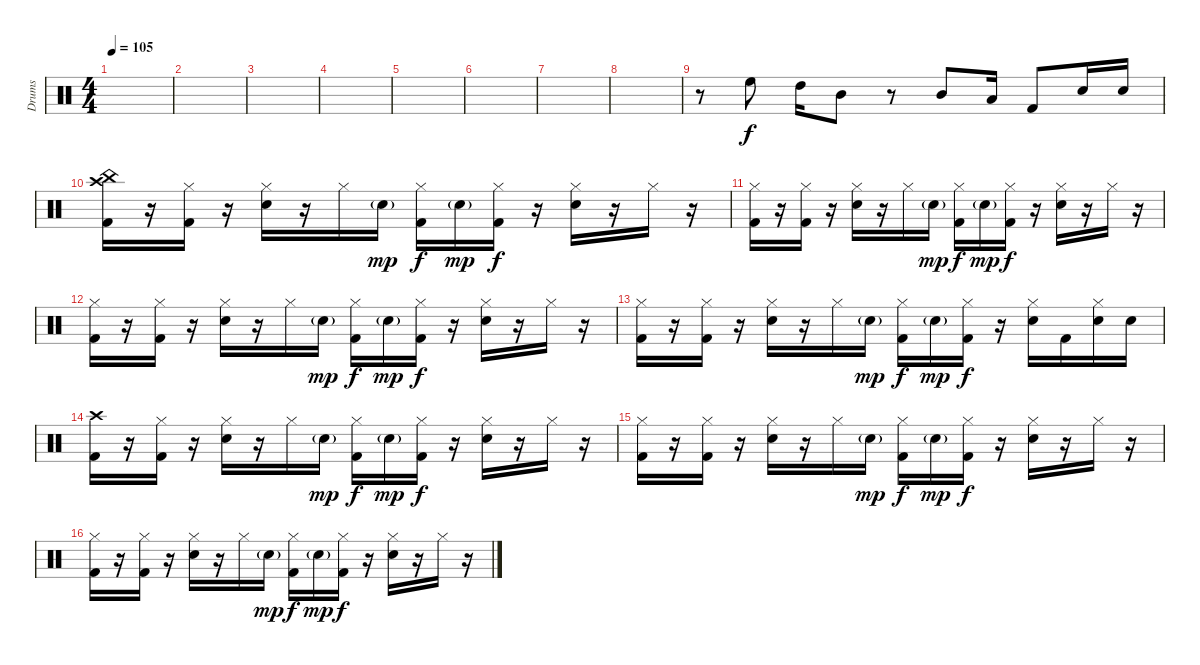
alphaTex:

\track ("Drums" "Drums") {instrument percussion}
\staff {score}
\articulation defaults
\ts (4 4)
\tempo 105
\clef neutral
\ks c
|
|
|
|
|
|
|
|
r.8 "High Floor Tom (hit)".8 "High Tom (hit)".16 "Mid Tom (hit)".8 r.8 "Mid Tom (hit)".8 "Low Tom (hit)".16 "Kick (hit) 2".8 "Snare (hit) 2".16 "Snare (hit) 2".16 |
("Kick (hit) 2" "China (hit)" "Crash high (hit)").16 r.16 ("Kick (hit) 2" "Hi-Hat (closed)").16 r.16 ("Snare (hit) 2" "Hi-Hat (closed)").16 r.16 "Hi-Hat (closed)".16 "Snare (hit) 2"{g}.16{dy mp} ("Kick (hit) 2" "Hi-Hat (closed)").16{dy f} "Snare (hit) 2"{g}.16{dy mp} ("Kick (hit) 2" "Hi-Hat (closed)").16{dy f} r.16 ("Snare (hit) 2" "Hi-Hat (closed)").16 r.16 "Hi-Hat (closed)".16 r.16 |
("Kick (hit) 2" "Hi-Hat (closed)").16 r.16 ("Kick (hit) 2" "Hi-Hat (closed)").16 r.16 ("Snare (hit) 2" "Hi-Hat (closed)").16 r.16 "Hi-Hat (closed)".16 "Snare (hit) 2"{g}.16{dy mp} ("Kick (hit) 2" "Hi-Hat (closed)").16{dy f} "Snare (hit) 2"{g}.16{dy mp} ("Kick (hit) 2" "Hi-Hat (closed)").16{dy f} r.16 ("Snare (hit) 2" "Hi-Hat (closed)").16 r.16 "Hi-Hat (closed)".16 r.16 |
("Kick (hit) 2" "Hi-Hat (closed)").16 r.16 ("Kick (hit) 2" "Hi-Hat (closed)").16 r.16 ("Snare (hit) 2" "Hi-Hat (closed)").16 r.16 "Hi-Hat (closed)".16 "Snare (hit) 2"{g}.16{dy mp} ("Kick (hit) 2" "Hi-Hat (closed)").16{dy f} "Snare (hit) 2"{g}.16{dy mp} ("Kick (hit) 2" "Hi-Hat (closed)").16{dy f} r.16 ("Snare (hit) 2" "Hi-Hat (closed)").16 r.16 "Hi-Hat (closed)".16 r.16 |
("Kick (hit) 2" "Hi-Hat (closed)").16 r.16 ("Kick (hit) 2" "Hi-Hat (closed)").16 r.16 ("Snare (hit) 2" "Hi-Hat (closed)").16 r.16 "Hi-Hat (closed)".16 "Snare (hit) 2"{g}.16{dy mp} ("Kick (hit) 2" "Hi-Hat (closed)").16{dy f} "Snare (hit) 2"{g}.16{dy mp} ("Kick (hit) 2" "Hi-Hat (closed)").16{dy f} r.16 ("Snare (hit) 2" "Hi-Hat (closed)").16 "Kick (hit) 2".16 ("Snare (hit) 2" "Hi-Hat (closed)").16 "Snare (hit) 2".16 |
("Kick (hit) 2" "Crash high (hit)").16 r.16 ("Kick (hit) 2" "Hi-Hat (closed)").16 r.16 ("Snare (hit) 2" "Hi-Hat (closed)").16 r.16 "Hi-Hat (closed)".16 "Snare (hit) 2"{g}.16{dy mp} ("Kick (hit) 2" "Hi-Hat (closed)").16{dy f} "Snare (hit) 2"{g}.16{dy mp} ("Kick (hit) 2" "Hi-Hat (closed)").16{dy f} r.16 ("Snare (hit) 2" "Hi-Hat (closed)").16 r.16 "Hi-Hat (closed)".16 r.16 |
("Kick (hit) 2" "Hi-Hat (closed)").16 r.16 ("Kick (hit) 2" "Hi-Hat (closed)").16 r.16 ("Snare (hit) 2" "Hi-Hat (closed)").16 r.16 "Hi-Hat (closed)".16 "Snare (hit) 2"{g}.16{dy mp} ("Kick (hit) 2" "Hi-Hat (closed)").16{dy f} "Snare (hit) 2"{g}.16{dy mp} ("Kick (hit) 2" "Hi-Hat (closed)").16{dy f} r.16 ("Snare (hit) 2" "Hi-Hat (closed)").16 r.16 "Hi-Hat (closed)".16 r.16 |
("Kick (hit) 2" "Hi-Hat (closed)").16 r.16 ("Kick (hit) 2" "Hi-Hat (closed)").16 r.16 ("Snare (hit) 2" "Hi-Hat (closed)").16 r.16 "Hi-Hat (closed)".16 "Snare (hit) 2"{g}.16{dy mp} ("Kick (hit) 2" "Hi-Hat (closed)").16{dy f} "Snare (hit) 2"{g}.16{dy mp} ("Kick (hit) 2" "Hi-Hat (closed)").16{dy f} r.16 ("Snare (hit) 2" "Hi-Hat (closed)").16 r.16 "Hi-Hat (closed)".16 r.16
